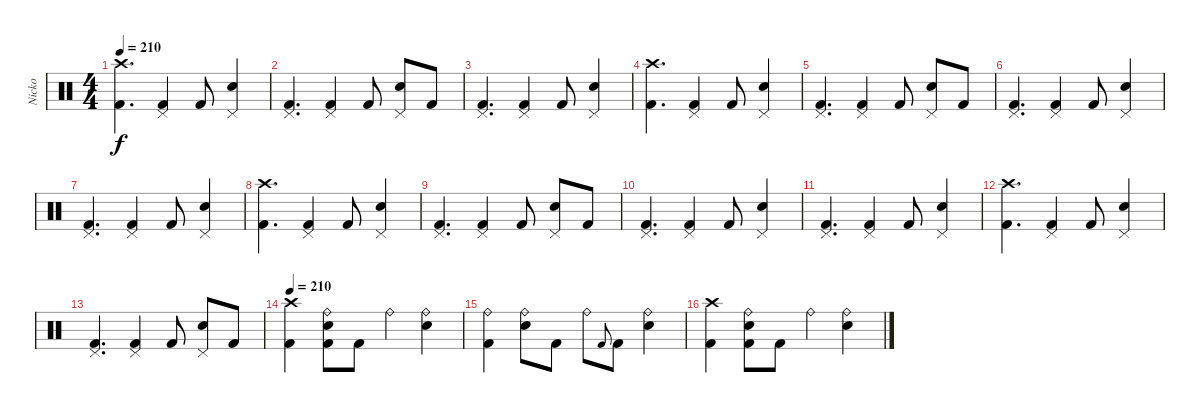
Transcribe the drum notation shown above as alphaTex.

\track ("Nicko" "Nicko") {instrument percussion}
\staff {score}
\articulation defaults
\ts (4 4)
\tempo 210
\clef neutral
\ks c
("Crash high (hit)" "Kick (hit) 2").4{d dy f} ("Pedal Hi-Hat (hit)" "Kick (hit) 2").4 "Kick (hit) 2".8 ("Pedal Hi-Hat (hit)" "Electric Snare (hit)").4 |
("Pedal Hi-Hat (hit)" "Kick (hit) 2").4{d} ("Pedal Hi-Hat (hit)" "Kick (hit) 2").4 "Kick (hit) 2".8 ("Pedal Hi-Hat (hit)" "Electric Snare (hit)").8 "Kick (hit) 2".8 |
("Pedal Hi-Hat (hit)" "Kick (hit) 2").4{d} ("Pedal Hi-Hat (hit)" "Kick (hit) 2").4 "Kick (hit) 2".8 ("Pedal Hi-Hat (hit)" "Electric Snare (hit)").4 |
("Crash high (hit)" "Kick (hit) 2").4{d} ("Pedal Hi-Hat (hit)" "Kick (hit) 2").4 "Kick (hit) 2".8 ("Pedal Hi-Hat (hit)" "Electric Snare (hit)").4 |
("Pedal Hi-Hat (hit)" "Kick (hit) 2").4{d} ("Pedal Hi-Hat (hit)" "Kick (hit) 2").4 "Kick (hit) 2".8 ("Pedal Hi-Hat (hit)" "Electric Snare (hit)").8 "Kick (hit) 2".8 |
("Pedal Hi-Hat (hit)" "Kick (hit) 2").4{d} ("Pedal Hi-Hat (hit)" "Kick (hit) 2").4 "Kick (hit) 2".8 ("Pedal Hi-Hat (hit)" "Electric Snare (hit)").4 |
("Pedal Hi-Hat (hit)" "Kick (hit) 2").4{d} ("Pedal Hi-Hat (hit)" "Kick (hit) 2").4 "Kick (hit) 2".8 ("Pedal Hi-Hat (hit)" "Electric Snare (hit)").4 |
("Crash high (hit)" "Kick (hit) 2").4{d} ("Pedal Hi-Hat (hit)" "Kick (hit) 2").4 "Kick (hit) 2".8 ("Pedal Hi-Hat (hit)" "Electric Snare (hit)").4 |
("Pedal Hi-Hat (hit)" "Kick (hit) 2").4{d} ("Pedal Hi-Hat (hit)" "Kick (hit) 2").4 "Kick (hit) 2".8 ("Pedal Hi-Hat (hit)" "Electric Snare (hit)").8 "Kick (hit) 2".8 |
("Pedal Hi-Hat (hit)" "Kick (hit) 2").4{d} ("Pedal Hi-Hat (hit)" "Kick (hit) 2").4 "Kick (hit) 2".8 ("Pedal Hi-Hat (hit)" "Electric Snare (hit)").4 |
("Pedal Hi-Hat (hit)" "Kick (hit) 2").4{d} ("Pedal Hi-Hat (hit)" "Kick (hit) 2").4 "Kick (hit) 2".8 ("Pedal Hi-Hat (hit)" "Electric Snare (hit)").4 |
("Crash high (hit)" "Kick (hit) 2").4{d} ("Pedal Hi-Hat (hit)" "Kick (hit) 2").4 "Kick (hit) 2".8 ("Pedal Hi-Hat (hit)" "Electric Snare (hit)").4 |
("Pedal Hi-Hat (hit)" "Kick (hit) 2").4{d} ("Pedal Hi-Hat (hit)" "Kick (hit) 2").4 "Kick (hit) 2".8 ("Pedal Hi-Hat (hit)" "Electric Snare (hit)").8 "Kick (hit) 2".8 |
\tempo 210
("Crash high (hit)" "Kick (hit) 2").4 ("Ride (bell)" "Electric Snare (hit)" "Kick (hit) 2").8 "Kick (hit) 2".8 "Ride (bell)".4 ("Ride (bell)" "Electric Snare (hit)").4 |
("Ride (bell)" "Kick (hit) 2").4 ("Ride (bell)" "Electric Snare (hit)").8 "Kick (hit) 2".8 "Ride (bell)".8 "Kick (hit) 2"{h}.8{gr onbeat} "Kick (hit) 2".8 ("Ride (bell)" "Electric Snare (hit)").4 |
("Crash high (hit)" "Kick (hit) 2").4 ("Ride (bell)" "Electric Snare (hit)" "Kick (hit) 2").8 "Kick (hit) 2".8 "Ride (bell)".4 ("Ride (bell)" "Electric Snare (hit)").4
